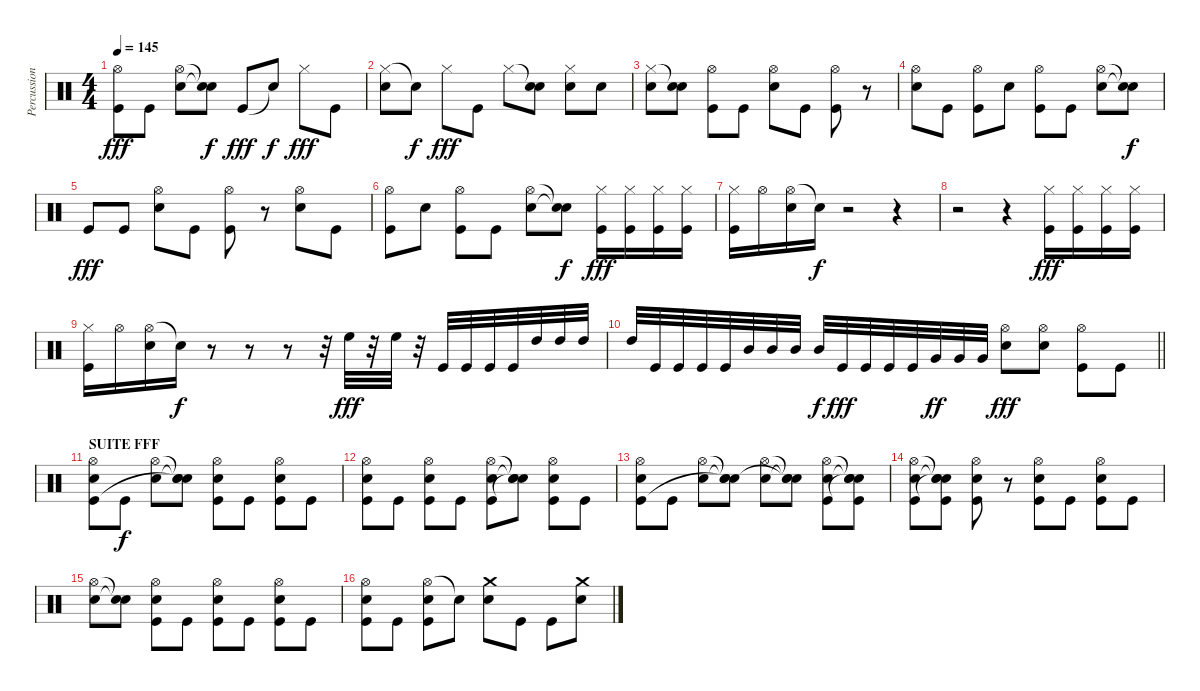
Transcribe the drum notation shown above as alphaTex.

\track ("Percussions" "Percussion") {instrument percussion}
\staff {score}
\articulation defaults
\ts (4 4)
\tempo 145
\clef neutral
\ks c
("Hi-Hat (open)" "Kick (hit)").8{dy fff} "Kick (hit)".8 ("Hi-Hat (open)" "Electric Snare (hit)").8 ("Snare (hit)"{t} "Snare (hit)"{t}).8{dy f} "Kick (hit)".8{dy fff} "Snare (hit)"{t}.8{dy f} "Hi-Hat (closed)".8{dy fff} "Kick (hit)".8 |
("Hi-Hat (closed)" "Electric Snare (hit)").8 "Snare (hit)"{t}.8{dy f} "Hi-Hat (closed)".8{dy fff} "Kick (hit)".8 "Hi-Hat (closed)".8 ("Snare (hit)"{t} "Electric Snare (hit)").8{volume 13} ("Hi-Hat (closed)" "Electric Snare (hit)").8 "Electric Snare (hit)".8 |
("Hi-Hat (closed)" "Electric Snare (hit)").8 ("Snare (hit)"{t} "Electric Snare (hit)").8 ("Hi-Hat (open)" "Kick (hit)").8{volume 16} "Kick (hit)".8 ("Hi-Hat (open)" "Electric Snare (hit)").8 "Kick (hit)".8 ("Hi-Hat (open)" "Kick (hit)").8 r.8 |
("Hi-Hat (open)" "Electric Snare (hit)").8 "Kick (hit)".8 ("Hi-Hat (open)" "Kick (hit)").8 "Electric Snare (hit)".8 ("Hi-Hat (open)" "Kick (hit)").8 "Kick (hit)".8 ("Hi-Hat (open)" "Electric Snare (hit)").8 ("Snare (hit)"{t} "Snare (hit)"{t}).8{dy f} |
"Kick (hit)".8{dy fff} "Kick (hit)".8 ("Hi-Hat (open)" "Electric Snare (hit)").8 "Kick (hit)".8 ("Hi-Hat (open)" "Kick (hit)").8 r.8 ("Hi-Hat (open)" "Electric Snare (hit)").8 "Kick (hit)".8 |
("Hi-Hat (open)" "Kick (hit)").8 "Electric Snare (hit)".8 ("Hi-Hat (open)" "Kick (hit)").8 "Kick (hit)".8 ("Hi-Hat (open)" "Electric Snare (hit)").8 ("Snare (hit)"{t} "Snare (hit)"{t}).8{dy f} ("Hi-Hat (closed)" "Kick (hit)").16{dy fff} ("Hi-Hat (closed)" "Kick (hit)").16 ("Hi-Hat (closed)" "Kick (hit)").16 ("Hi-Hat (closed)" "Kick (hit)").16 |
("Hi-Hat (closed)" "Kick (hit)").16 "Hi-Hat (open)".16 ("Hi-Hat (open)" "Electric Snare (hit)").16 "Snare (hit)"{t}.16{dy f} r.2 r.4 |
r.2 r.4 ("Hi-Hat (closed)" "Kick (hit)").16{dy fff} ("Hi-Hat (closed)" "Kick (hit)").16 ("Hi-Hat (closed)" "Kick (hit)").16 ("Hi-Hat (closed)" "Kick (hit)").16 |
("Hi-Hat (closed)" "Kick (hit)").16 "Hi-Hat (open)".16 ("Hi-Hat (open)" "Electric Snare (hit)").16 "Snare (hit)"{t}.16{dy f} r.8 r.8 r.8 r.32{volume 11} "High Floor Tom (hit)".32{dy fff} r.32 "High Floor Tom (hit)".32 r.32 "Kick (hit)".32{volume 16} "Kick (hit)".32 "Kick (hit)".32 "Kick (hit)".32 "High Tom (hit)".32{volume 12} "High Tom (hit)".32 "High Tom (hit)".32 |
\barLineRight lightlight "High Tom (hit)".32 "Kick (hit)".32{volume 16} "Kick (hit)".32 "Kick (hit)".32 "Kick (hit)".32 "Mid Tom (hit)".32{volume 12} "Mid Tom (hit)".32 "Mid Tom (hit)".32 "Mid Tom (hit)".32{dy f} "Kick (hit)".32{dy fff volume 16} "Kick (hit)".32 "Kick (hit)".32 "Kick (hit)".32 "Very Low Tom (hit)".32{dy ff volume 12} "Very Low Tom (hit)".32 "Very Low Tom (hit)".32
("Hi-Hat (open)" "Electric Snare (hit)").8{dy fff volume 16} ("Hi-Hat (open)" "Electric Snare (hit)").8 ("Hi-Hat (open)" "Kick (hit)").8 "Kick (hit)".8 |
\section ("" "SUITE FFF")
("Hi-Hat (open)" "Electric Snare (hit)" "Kick (hit)").8 "Kick (hit)".8{dy f} ("Hi-Hat (open)" "Electric Snare (hit)").8 ("Snare (hit)"{t} "Snare (hit)"{t} "Snare (hit)"{t}).8 ("Hi-Hat (open)" "Electric Snare (hit)" "Kick (hit)").8 "Kick (hit)".8 ("Hi-Hat (open)" "Electric Snare (hit)" "Kick (hit)").8 "Kick (hit)".8 |
("Hi-Hat (open)" "Electric Snare (hit)" "Kick (hit)").8 "Kick (hit)".8 ("Hi-Hat (open)" "Electric Snare (hit)" "Kick (hit)").8 "Kick (hit)".8 ("Hi-Hat (open)" "Electric Snare (hit)" "Kick (hit)").8 ("Snare (hit)"{t} "Snare (hit)"{t} "Snare (hit)"{t}).8 ("Hi-Hat (open)" "Electric Snare (hit)" "Kick (hit)").8 "Kick (hit)".8 |
("Hi-Hat (open)" "Electric Snare (hit)" "Kick (hit)").8 "Kick (hit)".8 ("Hi-Hat (open)" "Electric Snare (hit)").8 ("Snare (hit)"{t} "Snare (hit)"{t} "Snare (hit)"{t}).8 ("Hi-Hat (open)" "Electric Snare (hit)").8 ("Snare (hit)"{t} "Snare (hit)"{t} "Snare (hit)"{t}).8 ("Hi-Hat (open)" "Electric Snare (hit)" "Kick (hit)").8 ("Snare (hit)"{t} "Snare (hit)"{t} "Snare (hit)"{t} "Kick (hit)").8 |
("Hi-Hat (open)" "Electric Snare (hit)" "Kick (hit)").8 ("Snare (hit)"{t} "Snare (hit)"{t} "Snare (hit)"{t} "Kick (hit)").8 ("Hi-Hat (open)" "Electric Snare (hit)" "Kick (hit)").8 r.8 ("Hi-Hat (open)" "Electric Snare (hit)" "Kick (hit)").8 "Kick (hit)".8 ("Hi-Hat (open)" "Electric Snare (hit)" "Kick (hit)").8 "Kick (hit)".8 |
("Hi-Hat (open)" "Electric Snare (hit)").8 ("Snare (hit)"{t} "Snare (hit)"{t}).8 ("Hi-Hat (open)" "Electric Snare (hit)" "Kick (hit)").8 "Kick (hit)".8 ("Hi-Hat (open)" "Electric Snare (hit)" "Kick (hit)").8 "Kick (hit)".8 ("Hi-Hat (open)" "Electric Snare (hit)" "Kick (hit)").8 "Kick (hit)".8 |
("Hi-Hat (open)" "Electric Snare (hit)" "Kick (hit)").8 "Kick (hit)".8 ("Hi-Hat (open)" "Electric Snare (hit)" "Kick (hit)").8 "Snare (hit)"{t}.8 ("Crash medium (hit)" "Electric Snare (hit)").8 "Kick (hit)".8 "Kick (hit)".8 ("Crash medium (hit)" "Electric Snare (hit)").8
